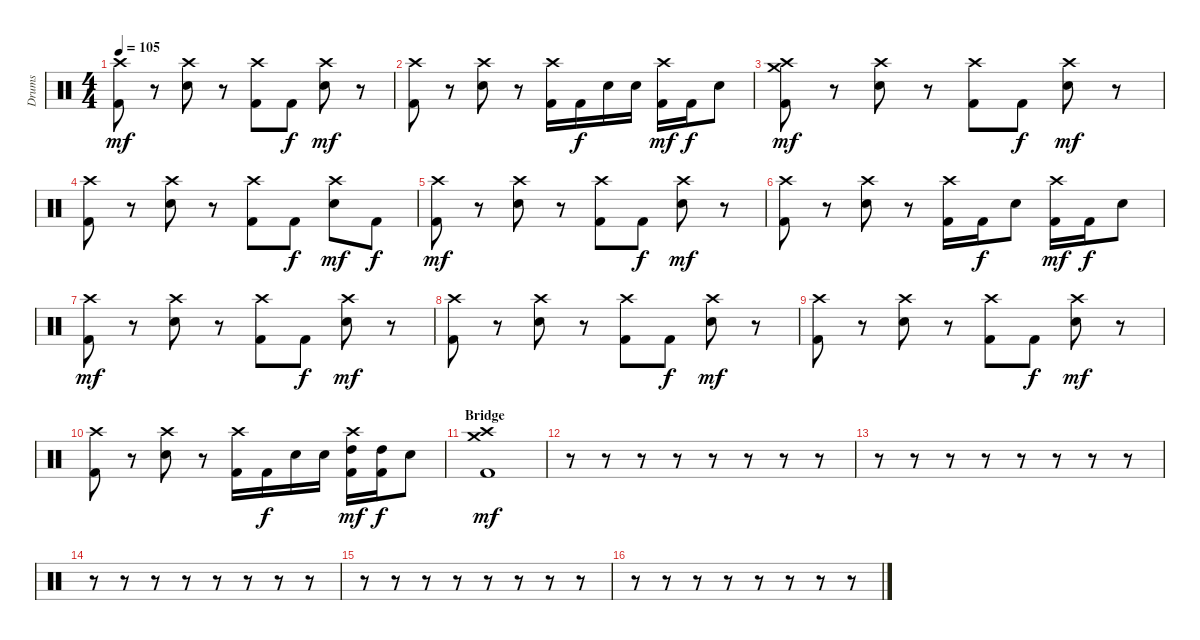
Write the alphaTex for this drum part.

\track ("Drums" "Drums") {instrument percussion}
\staff {score}
\articulation defaults
\ts (4 4)
\tempo 105
\clef neutral
\ks c
("Crash high (hit)" "Kick (hit) 2").8{dy mf} r.8 ("Crash high (hit)" "Electric Snare (hit)").8 r.8 ("Crash high (hit)" "Kick (hit) 2").8 "Kick (hit) 2".8{dy f} ("Crash high (hit)" "Electric Snare (hit)").8{dy mf} r.8 |
("Crash high (hit)" "Kick (hit) 2").8 r.8 ("Crash high (hit)" "Electric Snare (hit)").8 r.8 ("Crash high (hit)" "Kick (hit) 2").16 "Kick (hit) 2".16{dy f} "Electric Snare (hit)".16 "Electric Snare (hit)".16 ("Crash high (hit)" "Kick (hit) 2").16{dy mf} "Kick (hit) 2".16{dy f} "Electric Snare (hit)".8 |
("Crash medium (hit)" "Crash high (hit)" "Kick (hit) 2").8{dy mf} r.8 ("Crash high (hit)" "Electric Snare (hit)").8 r.8 ("Crash high (hit)" "Kick (hit) 2").8 "Kick (hit) 2".8{dy f} ("Crash high (hit)" "Electric Snare (hit)").8{dy mf} r.8 |
("Crash high (hit)" "Kick (hit) 2").8 r.8 ("Crash high (hit)" "Electric Snare (hit)").8 r.8 ("Crash high (hit)" "Kick (hit) 2").8 "Kick (hit) 2".8{dy f} ("Crash high (hit)" "Electric Snare (hit)").8{dy mf} "Kick (hit) 2".8{dy f} |
("Crash high (hit)" "Kick (hit) 2").8{dy mf} r.8 ("Crash high (hit)" "Electric Snare (hit)").8 r.8 ("Crash high (hit)" "Kick (hit) 2").8 "Kick (hit) 2".8{dy f} ("Crash high (hit)" "Electric Snare (hit)").8{dy mf} r.8 |
("Crash high (hit)" "Kick (hit) 2").8 r.8 ("Crash high (hit)" "Electric Snare (hit)").8 r.8 ("Crash high (hit)" "Kick (hit) 2").16 "Kick (hit) 2".16{dy f} "Electric Snare (hit)".8 ("Crash high (hit)" "Kick (hit) 2").16{dy mf} "Kick (hit) 2".16{dy f} "Electric Snare (hit)".8 |
("Crash high (hit)" "Kick (hit) 2").8{dy mf} r.8 ("Crash high (hit)" "Electric Snare (hit)").8 r.8 ("Crash high (hit)" "Kick (hit) 2").8 "Kick (hit) 2".8{dy f} ("Crash high (hit)" "Electric Snare (hit)").8{dy mf} r.8 |
("Crash high (hit)" "Kick (hit) 2").8 r.8 ("Crash high (hit)" "Electric Snare (hit)").8 r.8 ("Crash high (hit)" "Kick (hit) 2").8 "Kick (hit) 2".8{dy f} ("Crash high (hit)" "Electric Snare (hit)").8{dy mf} r.8 |
("Crash high (hit)" "Kick (hit) 2").8 r.8 ("Crash high (hit)" "Electric Snare (hit)").8 r.8 ("Crash high (hit)" "Kick (hit) 2").8 "Kick (hit) 2".8{dy f} ("Crash high (hit)" "Electric Snare (hit)").8{dy mf} r.8 |
("Crash high (hit)" "Kick (hit) 2").8 r.8 ("Crash high (hit)" "Electric Snare (hit)").8 r.8 ("Crash high (hit)" "Kick (hit) 2").16 "Kick (hit) 2".16{dy f} "Electric Snare (hit)".16 "Electric Snare (hit)".16 ("Crash high (hit)" "High Tom (hit)" "Kick (hit) 2").16{dy mf} ("High Tom (hit)" "Kick (hit) 2").16{dy f} "Electric Snare (hit)".8 |
\section ("" "Bridge")
("Crash medium (hit)" "Crash high (hit)" "Kick (hit) 2").1{dy mf} |
r.8 r.8 r.8 r.8 r.8 r.8 r.8 r.8 |
r.8 r.8 r.8 r.8 r.8 r.8 r.8 r.8 |
r.8 r.8 r.8 r.8 r.8 r.8 r.8 r.8 |
r.8 r.8 r.8 r.8 r.8 r.8 r.8 r.8 |
r.8 r.8 r.8 r.8 r.8 r.8 r.8 r.8
